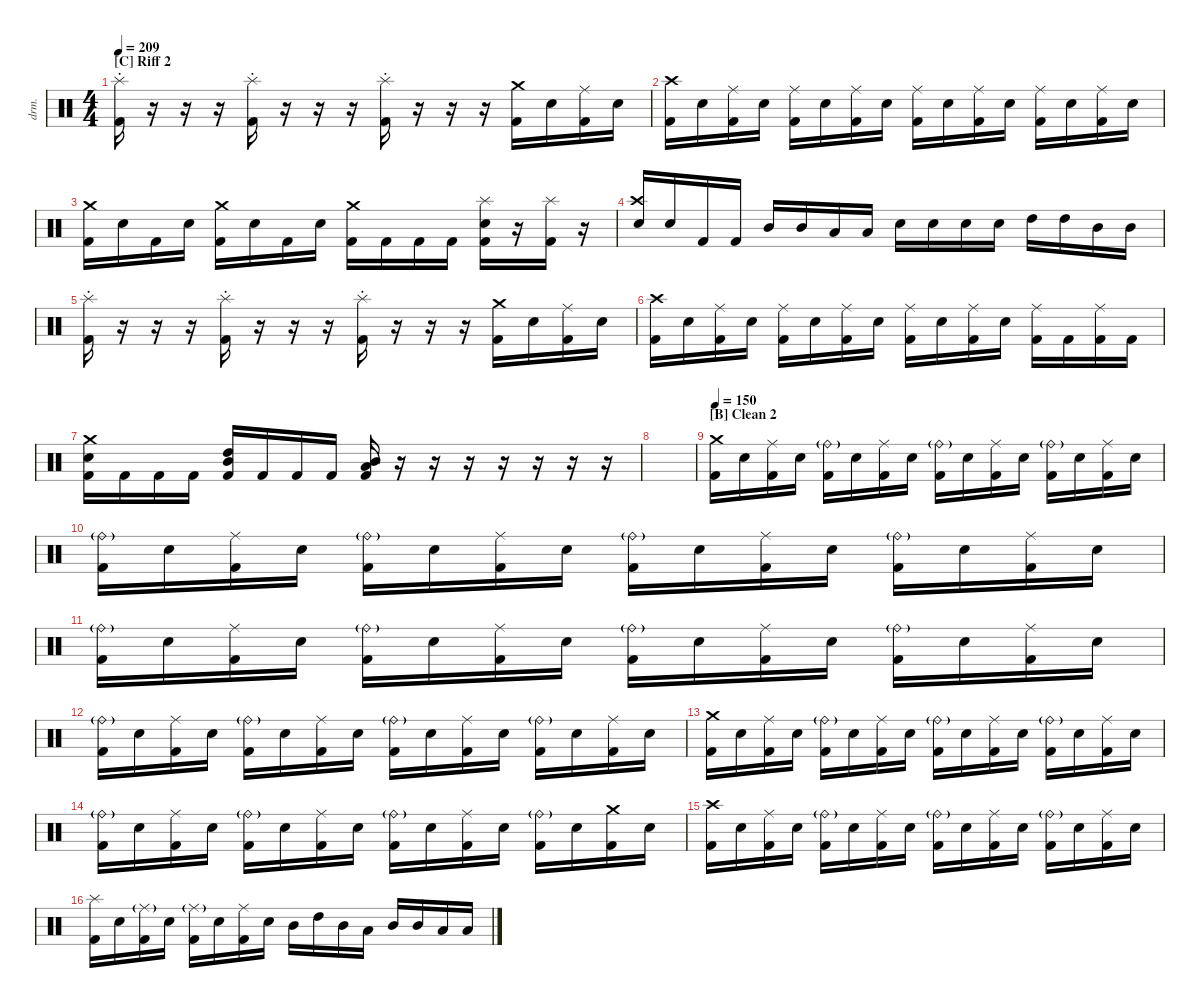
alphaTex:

\hideDynamics
\bracketExtendMode nobrackets
\track ("Drums" "drm.") {instrument percussion}
\staff {score}
\articulation defaults
\ts (4 4)
\section ("C" "Riff 2")
\tempo 209
\clef neutral
\ks c
("Splash (choke)" "Kick (hit) 2").16{dy mf beam Down} r.16{beam Down} r.16{beam Down} r.16{beam Down} ("Splash (choke)" "Kick (hit) 2").16{beam Down} r.16{beam Down} r.16{beam Down} r.16{beam Down} ("Splash (choke)" "Kick (hit) 2").16{beam Down} r.16{beam Down} r.16{beam Down} r.16{beam Down} ("Kick (hit) 2" "Crash medium (hit)").16{beam Down} "Snare (hit) 2".16{beam Down} ("Kick (hit) 2" "Ride (middle)").16{beam Down} "Snare (hit) 2".16{beam Down} |
("Kick (hit) 2" "Crash high (hit)").16{beam Down} "Snare (hit) 2".16{beam Down} ("Kick (hit) 2" "Ride (middle)").16{beam Down} "Snare (hit) 2".16{beam Down} ("Kick (hit) 2" "Ride (middle)").16{beam Down} "Snare (hit) 2".16{beam Down} ("Kick (hit) 2" "Ride (middle)").16{beam Down} "Snare (hit) 2".16{beam Down} ("Kick (hit) 2" "Ride (middle)").16{beam Down} "Snare (hit) 2".16{beam Down} ("Kick (hit) 2" "Ride (middle)").16{beam Down} "Snare (hit) 2".16{beam Down} ("Kick (hit) 2" "Ride (middle)").16{beam Down} "Snare (hit) 2".16{beam Down} ("Kick (hit) 2" "Ride (middle)").16{beam Down} "Snare (hit) 2".16{beam Down} |
("Kick (hit) 2" "Crash medium (hit)").16{beam Down} "Snare (hit) 2".16{beam Down} "Kick (hit) 2".16{beam Down} "Snare (hit) 2".16{beam Down} ("Kick (hit) 2" "Crash medium (hit)").16{beam Down} "Snare (hit) 2".16{beam Down} "Kick (hit) 2".16{beam Down} "Snare (hit) 2".16{beam Down} ("Kick (hit) 2" "Crash medium (hit)").16{beam Down} "Kick (hit) 2".16{beam Down} "Kick (hit) 2".16{beam Down} "Kick (hit) 2".16{beam Down} ("Kick (hit) 2" "Splash (hit)" "Snare (hit) 2").16{beam Down} r.16{beam Down} ("Kick (hit) 2" "Splash (hit)").16{beam Down} r.16{beam Down} |
("Snare (hit) 2" "Crash high (hit)").16{beam Up} "Snare (hit) 2".16{beam Up} "Kick (hit) 2".16{beam Up} "Kick (hit) 2".16{beam Up} "Mid Tom (hit)".16{beam Up} "Mid Tom (hit)".16{beam Up} "Low Tom (hit)".16{beam Up} "Low Tom (hit)".16{beam Up} "Snare (hit) 2".16{beam Down} "Snare (hit) 2".16{beam Down} "Snare (hit) 2".16{beam Down} "Snare (hit) 2".16{beam Down} "High Tom (hit)".16{beam Down} "High Tom (hit)".16{beam Down} "Mid Tom (hit)".16{beam Down} "Mid Tom (hit)".16{beam Down} |
("Splash (choke)" "Kick (hit) 2").16{beam Down} r.16{beam Down} r.16{beam Down} r.16{beam Down} ("Splash (choke)" "Kick (hit) 2").16{beam Down} r.16{beam Down} r.16{beam Down} r.16{beam Down} ("Splash (choke)" "Kick (hit) 2").16{beam Down} r.16{beam Down} r.16{beam Down} r.16{beam Down} ("Kick (hit) 2" "Crash medium (hit)").16{beam Down} "Snare (hit) 2".16{beam Down} ("Kick (hit) 2" "Ride (middle)").16{beam Down} "Snare (hit) 2".16{beam Down} |
("Kick (hit) 2" "Crash high (hit)").16{beam Down} "Snare (hit) 2".16{beam Down} ("Kick (hit) 2" "Ride (middle)").16{beam Down} "Snare (hit) 2".16{beam Down} ("Kick (hit) 2" "Ride (middle)").16{beam Down} "Snare (hit) 2".16{beam Down} ("Kick (hit) 2" "Ride (middle)").16{beam Down} "Snare (hit) 2".16{beam Down} ("Kick (hit) 2" "Ride (middle)").16{beam Down} "Snare (hit) 2".16{beam Down} ("Kick (hit) 2" "Ride (middle)").16{beam Down} "Snare (hit) 2".16{beam Down} ("Kick (hit) 2" "Ride (middle)").16{beam Down} "Kick (hit) 2".16{beam Down} ("Kick (hit) 2" "Ride (middle)").16{beam Down} "Kick (hit) 2".16{beam Down} |
("Kick (hit) 2" "Crash medium (hit)" "Snare (hit) 2").16{beam Down} "Kick (hit) 2".16{beam Down} "Kick (hit) 2".16{beam Down} "Kick (hit) 2".16{beam Down} ("Kick (hit) 2" "Mid Tom (hit)" "High Tom (hit)").16{beam Up} "Kick (hit) 2".16{beam Up} "Kick (hit) 2".16{beam Up} "Kick (hit) 2".16{beam Up} ("Kick (hit) 2" "Low Tom (hit)" "Mid Tom (hit)").16{beam Up} r.16{beam Down} r.16{beam Down} r.16{beam Down} r.16{beam Down} r.16{beam Down} r.16{beam Down} r.16{beam Down} |
|
\section ("B" "Clean 2")
\tempo 150
("Kick (hit) 2" "Crash medium (hit)").16{beam Down} "Snare (hit) 2".16{beam Down} ("Kick (hit) 2" "Ride (middle)").16{beam Down} "Snare (hit) 2".16{beam Down} ("Kick (hit) 2" "Ride (bell)"{g}).16{beam Down} "Snare (hit) 2".16{beam Down} ("Kick (hit) 2" "Ride (middle)").16{beam Down} "Snare (hit) 2".16{beam Down} ("Kick (hit) 2" "Ride (bell)"{g}).16{beam Down} "Snare (hit) 2".16{beam Down} ("Kick (hit) 2" "Ride (middle)").16{beam Down} "Snare (hit) 2".16{beam Down} ("Kick (hit) 2" "Ride (bell)"{g}).16{beam Down} "Snare (hit) 2".16{beam Down} ("Kick (hit) 2" "Ride (middle)").16{beam Down} "Snare (hit) 2".16{beam Down} |
("Kick (hit) 2" "Ride (bell)"{g}).16{beam Down} "Snare (hit) 2".16{beam Down} ("Kick (hit) 2" "Ride (middle)").16{beam Down} "Snare (hit) 2".16{beam Down} ("Kick (hit) 2" "Ride (bell)"{g}).16{beam Down} "Snare (hit) 2".16{beam Down} ("Kick (hit) 2" "Ride (middle)").16{beam Down} "Snare (hit) 2".16{beam Down} ("Kick (hit) 2" "Ride (bell)"{g}).16{beam Down} "Snare (hit) 2".16{beam Down} ("Kick (hit) 2" "Ride (middle)").16{beam Down} "Snare (hit) 2".16{beam Down} ("Kick (hit) 2" "Ride (bell)"{g}).16{beam Down} "Snare (hit) 2".16{beam Down} ("Kick (hit) 2" "Ride (middle)").16{beam Down} "Snare (hit) 2".16{beam Down} |
("Kick (hit) 2" "Ride (bell)"{g}).16{beam Down} "Snare (hit) 2".16{beam Down} ("Kick (hit) 2" "Ride (middle)").16{beam Down} "Snare (hit) 2".16{beam Down} ("Kick (hit) 2" "Ride (bell)"{g}).16{beam Down} "Snare (hit) 2".16{beam Down} ("Kick (hit) 2" "Ride (middle)").16{beam Down} "Snare (hit) 2".16{beam Down} ("Kick (hit) 2" "Ride (bell)"{g}).16{beam Down} "Snare (hit) 2".16{beam Down} ("Kick (hit) 2" "Ride (middle)").16{beam Down} "Snare (hit) 2".16{beam Down} ("Kick (hit) 2" "Ride (bell)"{g}).16{beam Down} "Snare (hit) 2".16{beam Down} ("Kick (hit) 2" "Ride (middle)").16{beam Down} "Snare (hit) 2".16{beam Down} |
("Kick (hit) 2" "Ride (bell)"{g}).16{beam Down} "Snare (hit) 2".16{beam Down} ("Kick (hit) 2" "Ride (middle)").16{beam Down} "Snare (hit) 2".16{beam Down} ("Kick (hit) 2" "Ride (bell)"{g}).16{beam Down} "Snare (hit) 2".16{beam Down} ("Kick (hit) 2" "Ride (middle)").16{beam Down} "Snare (hit) 2".16{beam Down} ("Kick (hit) 2" "Ride (bell)"{g}).16{beam Down} "Snare (hit) 2".16{beam Down} ("Kick (hit) 2" "Ride (middle)").16{beam Down} "Snare (hit) 2".16{beam Down} ("Kick (hit) 2" "Ride (bell)"{g}).16{beam Down} "Snare (hit) 2".16{beam Down} ("Kick (hit) 2" "Ride (middle)").16{beam Down} "Snare (hit) 2".16{beam Down} |
("Kick (hit) 2" "Crash medium (hit)").16{beam Down} "Snare (hit) 2".16{beam Down} ("Kick (hit) 2" "Ride (middle)").16{beam Down} "Snare (hit) 2".16{beam Down} ("Kick (hit) 2" "Ride (bell)"{g}).16{beam Down} "Snare (hit) 2".16{beam Down} ("Kick (hit) 2" "Ride (middle)").16{beam Down} "Snare (hit) 2".16{beam Down} ("Kick (hit) 2" "Ride (bell)"{g}).16{beam Down} "Snare (hit) 2".16{beam Down} ("Kick (hit) 2" "Ride (middle)").16{beam Down} "Snare (hit) 2".16{beam Down} ("Kick (hit) 2" "Ride (bell)"{g}).16{beam Down} "Snare (hit) 2".16{beam Down} ("Kick (hit) 2" "Ride (middle)").16{beam Down} "Snare (hit) 2".16{beam Down} |
("Kick (hit) 2" "Ride (bell)"{g}).16{beam Down} "Snare (hit) 2".16{beam Down} ("Kick (hit) 2" "Ride (middle)").16{beam Down} "Snare (hit) 2".16{beam Down} ("Kick (hit) 2" "Ride (bell)"{g}).16{beam Down} "Snare (hit) 2".16{beam Down} ("Kick (hit) 2" "Ride (middle)").16{beam Down} "Snare (hit) 2".16{beam Down} ("Kick (hit) 2" "Ride (bell)"{g}).16{beam Down} "Snare (hit) 2".16{beam Down} ("Kick (hit) 2" "Ride (middle)").16{beam Down} "Snare (hit) 2".16{beam Down} ("Kick (hit) 2" "Ride (bell)"{g}).16{beam Down} "Snare (hit) 2".16{beam Down} ("Kick (hit) 2" "Crash medium (hit)").16{beam Down} "Snare (hit) 2".16{beam Down} |
("Kick (hit) 2" "Crash high (hit)").16{beam Down} "Snare (hit) 2".16{beam Down} ("Kick (hit) 2" "Ride (middle)").16{beam Down} "Snare (hit) 2".16{beam Down} ("Kick (hit) 2" "Ride (bell)"{g}).16{beam Down} "Snare (hit) 2".16{beam Down} ("Kick (hit) 2" "Ride (middle)").16{beam Down} "Snare (hit) 2".16{beam Down} ("Kick (hit) 2" "Ride (bell)"{g}).16{beam Down} "Snare (hit) 2".16{beam Down} ("Kick (hit) 2" "Ride (middle)").16{beam Down} "Snare (hit) 2".16{beam Down} ("Kick (hit) 2" "Ride (bell)"{g}).16{beam Down} "Snare (hit) 2".16{beam Down} ("Kick (hit) 2" "Ride (middle)").16{beam Down} "Snare (hit) 2".16{beam Down} |
("Kick (hit) 2" "Splash (hit)").16{beam Down} "Snare (hit) 2".16{beam Down} ("Kick (hit) 2" "Ride (middle)"{g}).16{beam Down} "Snare (hit) 2".16{beam Down} ("Kick (hit) 2" "Ride (middle)"{g}).16{beam Down} "Snare (hit) 2".16{beam Down} ("Kick (hit) 2" "Ride (middle)").16{beam Down} "Snare (hit) 2".16{beam Down} "Mid Tom (hit)".16{beam Down} "High Tom (hit)".16{beam Down} "Mid Tom (hit)".16{beam Down} "Low Tom (hit)".16{beam Down} "Mid Tom (hit)".16{beam Up} "Mid Tom (hit)".16{beam Up} "Low Tom (hit)".16{beam Up} "Low Tom (hit)".16{beam Up}
